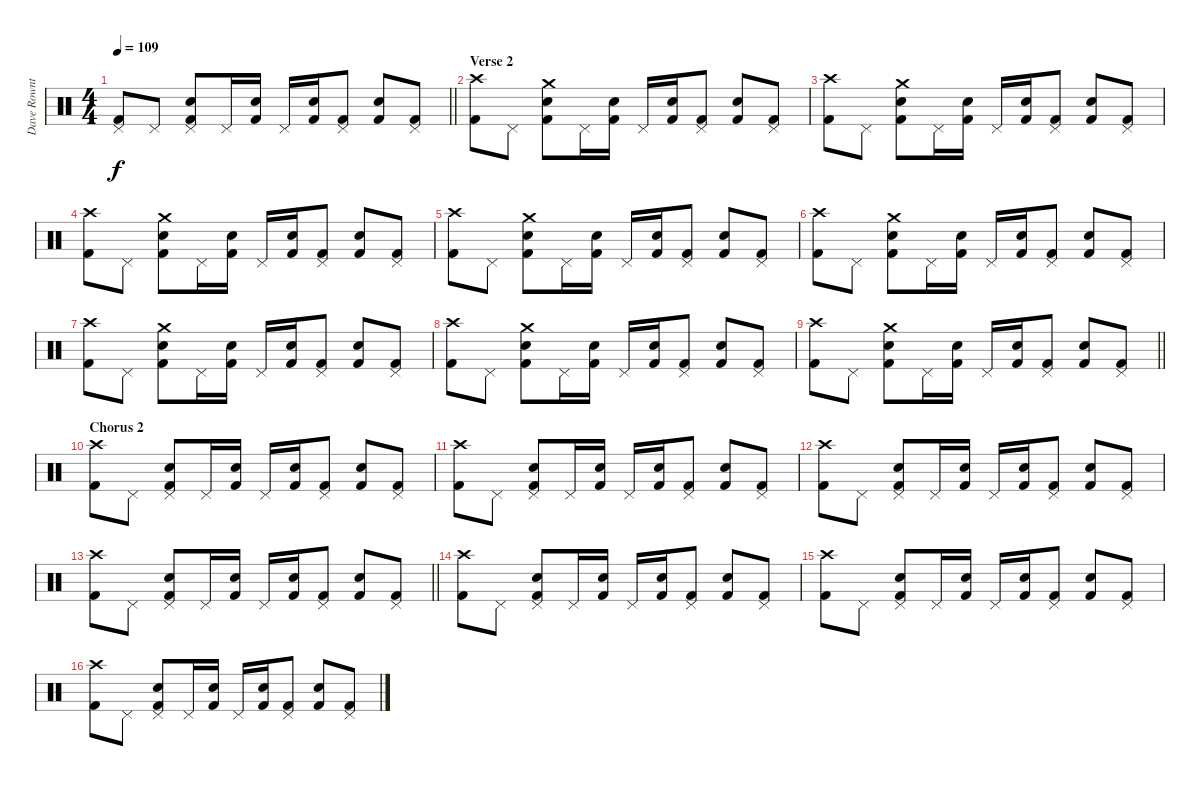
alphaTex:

\track ("Dave Rowntree - Drums" "Dave Rownt") {instrument percussion}
\staff {score}
\articulation defaults
\ts (4 4)
\tempo 109
\clef neutral
\barLineRight lightlight
\ks c
("Kick (hit) 2" "Pedal Hi-Hat (hit)").8{dy f} "Pedal Hi-Hat (hit)".8 ("Kick (hit) 2" "Pedal Hi-Hat (hit)" "Electric Snare (hit)").8 "Pedal Hi-Hat (hit)".16 ("Kick (hit) 2" "Electric Snare (hit)").16 "Pedal Hi-Hat (hit)".16 ("Kick (hit) 2" "Electric Snare (hit)").16 ("Kick (hit) 2" "Pedal Hi-Hat (hit)").8 ("Kick (hit) 2" "Electric Snare (hit)").8 ("Kick (hit) 2" "Pedal Hi-Hat (hit)").8 |
\section ("" "Verse 2")
("Kick (hit) 2" "Crash high (hit)").8 "Pedal Hi-Hat (hit)".8 ("Kick (hit) 2" "Crash medium (hit)" "Electric Snare (hit)").8 "Pedal Hi-Hat (hit)".16 ("Kick (hit) 2" "Electric Snare (hit)").16 "Pedal Hi-Hat (hit)".16 ("Kick (hit) 2" "Electric Snare (hit)").16 ("Kick (hit) 2" "Pedal Hi-Hat (hit)").8 ("Kick (hit) 2" "Electric Snare (hit)").8 ("Kick (hit) 2" "Pedal Hi-Hat (hit)").8 |
("Kick (hit) 2" "Crash high (hit)").8 "Pedal Hi-Hat (hit)".8 ("Kick (hit) 2" "Crash medium (hit)" "Electric Snare (hit)").8 "Pedal Hi-Hat (hit)".16 ("Kick (hit) 2" "Electric Snare (hit)").16 "Pedal Hi-Hat (hit)".16 ("Kick (hit) 2" "Electric Snare (hit)").16 ("Kick (hit) 2" "Pedal Hi-Hat (hit)").8 ("Kick (hit) 2" "Electric Snare (hit)").8 ("Kick (hit) 2" "Pedal Hi-Hat (hit)").8 |
("Kick (hit) 2" "Crash high (hit)").8 "Pedal Hi-Hat (hit)".8 ("Kick (hit) 2" "Crash medium (hit)" "Electric Snare (hit)").8 "Pedal Hi-Hat (hit)".16 ("Kick (hit) 2" "Electric Snare (hit)").16 "Pedal Hi-Hat (hit)".16 ("Kick (hit) 2" "Electric Snare (hit)").16 ("Kick (hit) 2" "Pedal Hi-Hat (hit)").8 ("Kick (hit) 2" "Electric Snare (hit)").8 ("Kick (hit) 2" "Pedal Hi-Hat (hit)").8 |
("Kick (hit) 2" "Crash high (hit)").8 "Pedal Hi-Hat (hit)".8 ("Kick (hit) 2" "Crash medium (hit)" "Electric Snare (hit)").8 "Pedal Hi-Hat (hit)".16 ("Kick (hit) 2" "Electric Snare (hit)").16 "Pedal Hi-Hat (hit)".16 ("Kick (hit) 2" "Electric Snare (hit)").16 ("Kick (hit) 2" "Pedal Hi-Hat (hit)").8 ("Kick (hit) 2" "Electric Snare (hit)").8 ("Kick (hit) 2" "Pedal Hi-Hat (hit)").8 |
("Kick (hit) 2" "Crash high (hit)").8 "Pedal Hi-Hat (hit)".8 ("Kick (hit) 2" "Crash medium (hit)" "Electric Snare (hit)").8 "Pedal Hi-Hat (hit)".16 ("Kick (hit) 2" "Electric Snare (hit)").16 "Pedal Hi-Hat (hit)".16 ("Kick (hit) 2" "Electric Snare (hit)").16 ("Kick (hit) 2" "Pedal Hi-Hat (hit)").8 ("Kick (hit) 2" "Electric Snare (hit)").8 ("Kick (hit) 2" "Pedal Hi-Hat (hit)").8 |
("Kick (hit) 2" "Crash high (hit)").8 "Pedal Hi-Hat (hit)".8 ("Kick (hit) 2" "Crash medium (hit)" "Electric Snare (hit)").8 "Pedal Hi-Hat (hit)".16 ("Kick (hit) 2" "Electric Snare (hit)").16 "Pedal Hi-Hat (hit)".16 ("Kick (hit) 2" "Electric Snare (hit)").16 ("Kick (hit) 2" "Pedal Hi-Hat (hit)").8 ("Kick (hit) 2" "Electric Snare (hit)").8 ("Kick (hit) 2" "Pedal Hi-Hat (hit)").8 |
("Kick (hit) 2" "Crash high (hit)").8 "Pedal Hi-Hat (hit)".8 ("Kick (hit) 2" "Crash medium (hit)" "Electric Snare (hit)").8 "Pedal Hi-Hat (hit)".16 ("Kick (hit) 2" "Electric Snare (hit)").16 "Pedal Hi-Hat (hit)".16 ("Kick (hit) 2" "Electric Snare (hit)").16 ("Kick (hit) 2" "Pedal Hi-Hat (hit)").8 ("Kick (hit) 2" "Electric Snare (hit)").8 ("Kick (hit) 2" "Pedal Hi-Hat (hit)").8 |
\barLineRight lightlight
("Kick (hit) 2" "Crash high (hit)").8 "Pedal Hi-Hat (hit)".8 ("Kick (hit) 2" "Crash medium (hit)" "Electric Snare (hit)").8 "Pedal Hi-Hat (hit)".16 ("Kick (hit) 2" "Electric Snare (hit)").16 "Pedal Hi-Hat (hit)".16 ("Kick (hit) 2" "Electric Snare (hit)").16 ("Kick (hit) 2" "Pedal Hi-Hat (hit)").8 ("Kick (hit) 2" "Electric Snare (hit)").8 ("Kick (hit) 2" "Pedal Hi-Hat (hit)").8 |
\section ("" "Chorus 2")
("Kick (hit) 2" "Crash high (hit)").8 "Pedal Hi-Hat (hit)".8 ("Kick (hit) 2" "Pedal Hi-Hat (hit)" "Electric Snare (hit)").8 "Pedal Hi-Hat (hit)".16 ("Kick (hit) 2" "Electric Snare (hit)").16 "Pedal Hi-Hat (hit)".16 ("Kick (hit) 2" "Electric Snare (hit)").16 ("Kick (hit) 2" "Pedal Hi-Hat (hit)").8 ("Kick (hit) 2" "Electric Snare (hit)").8 ("Kick (hit) 2" "Pedal Hi-Hat (hit)").8 |
("Kick (hit) 2" "Crash high (hit)").8 "Pedal Hi-Hat (hit)".8 ("Kick (hit) 2" "Pedal Hi-Hat (hit)" "Electric Snare (hit)").8 "Pedal Hi-Hat (hit)".16 ("Kick (hit) 2" "Electric Snare (hit)").16 "Pedal Hi-Hat (hit)".16 ("Kick (hit) 2" "Electric Snare (hit)").16 ("Kick (hit) 2" "Pedal Hi-Hat (hit)").8 ("Kick (hit) 2" "Electric Snare (hit)").8 ("Kick (hit) 2" "Pedal Hi-Hat (hit)").8 |
("Kick (hit) 2" "Crash high (hit)").8 "Pedal Hi-Hat (hit)".8 ("Kick (hit) 2" "Pedal Hi-Hat (hit)" "Electric Snare (hit)").8 "Pedal Hi-Hat (hit)".16 ("Kick (hit) 2" "Electric Snare (hit)").16 "Pedal Hi-Hat (hit)".16 ("Kick (hit) 2" "Electric Snare (hit)").16 ("Kick (hit) 2" "Pedal Hi-Hat (hit)").8 ("Kick (hit) 2" "Electric Snare (hit)").8 ("Kick (hit) 2" "Pedal Hi-Hat (hit)").8 |
\barLineRight lightlight
("Kick (hit) 2" "Crash high (hit)").8 "Pedal Hi-Hat (hit)".8 ("Kick (hit) 2" "Pedal Hi-Hat (hit)" "Electric Snare (hit)").8 "Pedal Hi-Hat (hit)".16 ("Kick (hit) 2" "Electric Snare (hit)").16 "Pedal Hi-Hat (hit)".16 ("Kick (hit) 2" "Electric Snare (hit)").16 ("Kick (hit) 2" "Pedal Hi-Hat (hit)").8 ("Kick (hit) 2" "Electric Snare (hit)").8 ("Kick (hit) 2" "Pedal Hi-Hat (hit)").8 |
("Kick (hit) 2" "Crash high (hit)").8 "Pedal Hi-Hat (hit)".8 ("Kick (hit) 2" "Pedal Hi-Hat (hit)" "Electric Snare (hit)").8 "Pedal Hi-Hat (hit)".16 ("Kick (hit) 2" "Electric Snare (hit)").16 "Pedal Hi-Hat (hit)".16 ("Kick (hit) 2" "Electric Snare (hit)").16 ("Kick (hit) 2" "Pedal Hi-Hat (hit)").8 ("Kick (hit) 2" "Electric Snare (hit)").8 ("Kick (hit) 2" "Pedal Hi-Hat (hit)").8 |
("Kick (hit) 2" "Crash high (hit)").8 "Pedal Hi-Hat (hit)".8 ("Kick (hit) 2" "Pedal Hi-Hat (hit)" "Electric Snare (hit)").8 "Pedal Hi-Hat (hit)".16 ("Kick (hit) 2" "Electric Snare (hit)").16 "Pedal Hi-Hat (hit)".16 ("Kick (hit) 2" "Electric Snare (hit)").16 ("Kick (hit) 2" "Pedal Hi-Hat (hit)").8 ("Kick (hit) 2" "Electric Snare (hit)").8 ("Kick (hit) 2" "Pedal Hi-Hat (hit)").8 |
("Kick (hit) 2" "Crash high (hit)").8 "Pedal Hi-Hat (hit)".8 ("Kick (hit) 2" "Pedal Hi-Hat (hit)" "Electric Snare (hit)").8 "Pedal Hi-Hat (hit)".16 ("Kick (hit) 2" "Electric Snare (hit)").16 "Pedal Hi-Hat (hit)".16 ("Kick (hit) 2" "Electric Snare (hit)").16 ("Kick (hit) 2" "Pedal Hi-Hat (hit)").8 ("Kick (hit) 2" "Electric Snare (hit)").8 ("Kick (hit) 2" "Pedal Hi-Hat (hit)").8
